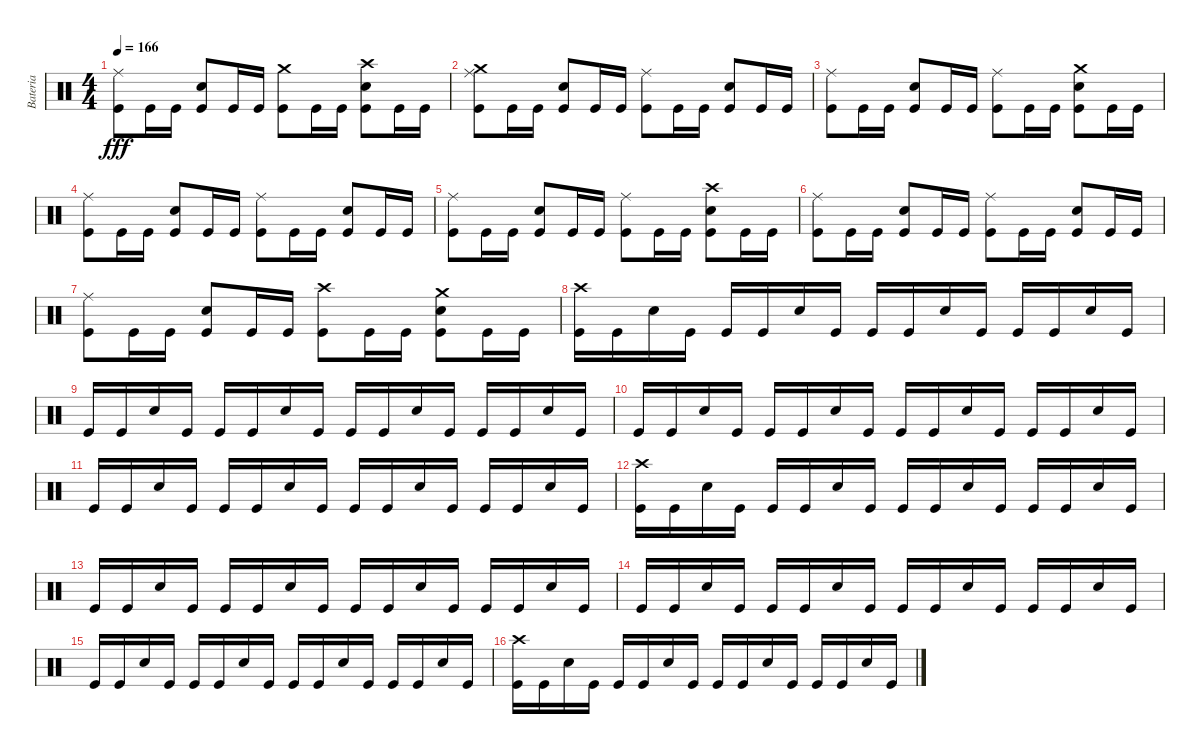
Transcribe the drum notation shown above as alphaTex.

\track ("Bateria" "Bateria") {instrument percussion}
\staff {score}
\articulation defaults
\ts (4 4)
\tempo 166
\clef neutral
\ks c
("Ride (middle)" "Kick (hit)").8{dy fff} "Kick (hit)".16 "Kick (hit)".16 ("Snare (hit) 2" "Kick (hit)").8 "Kick (hit)".16 "Kick (hit)".16 ("Kick (hit)" "Crash medium (hit)").8 "Kick (hit)".16 "Kick (hit)".16 ("Snare (hit) 2" "Kick (hit)" "Crash high (hit)").8 "Kick (hit)".16 "Kick (hit)".16 |
("Ride (middle)" "Kick (hit)" "Crash medium (hit)").8 "Kick (hit)".16 "Kick (hit)".16 ("Snare (hit) 2" "Kick (hit)").8 "Kick (hit)".16 "Kick (hit)".16 ("Ride (middle)" "Kick (hit)").8 "Kick (hit)".16 "Kick (hit)".16 ("Snare (hit) 2" "Kick (hit)").8 "Kick (hit)".16 "Kick (hit)".16 |
("Ride (middle)" "Kick (hit)").8 "Kick (hit)".16 "Kick (hit)".16 ("Snare (hit) 2" "Kick (hit)").8 "Kick (hit)".16 "Kick (hit)".16 ("Ride (middle)" "Kick (hit)").8 "Kick (hit)".16 "Kick (hit)".16 ("Snare (hit) 2" "Kick (hit)" "Crash medium (hit)").8 "Kick (hit)".16 "Kick (hit)".16 |
("Ride (middle)" "Kick (hit)").8 "Kick (hit)".16 "Kick (hit)".16 ("Snare (hit) 2" "Kick (hit)").8 "Kick (hit)".16 "Kick (hit)".16 ("Ride (middle)" "Kick (hit)").8 "Kick (hit)".16 "Kick (hit)".16 ("Snare (hit) 2" "Kick (hit)").8 "Kick (hit)".16 "Kick (hit)".16 |
("Ride (middle)" "Kick (hit)").8 "Kick (hit)".16 "Kick (hit)".16 ("Snare (hit) 2" "Kick (hit)").8 "Kick (hit)".16 "Kick (hit)".16 ("Ride (middle)" "Kick (hit)").8 "Kick (hit)".16 "Kick (hit)".16 ("Snare (hit) 2" "Kick (hit)" "Crash high (hit)").8 "Kick (hit)".16 "Kick (hit)".16 |
("Ride (middle)" "Kick (hit)").8 "Kick (hit)".16 "Kick (hit)".16 ("Snare (hit) 2" "Kick (hit)").8 "Kick (hit)".16 "Kick (hit)".16 ("Ride (middle)" "Kick (hit)").8 "Kick (hit)".16 "Kick (hit)".16 ("Snare (hit) 2" "Kick (hit)").8 "Kick (hit)".16 "Kick (hit)".16 |
("Ride (middle)" "Kick (hit)").8 "Kick (hit)".16 "Kick (hit)".16 ("Snare (hit) 2" "Kick (hit)").8 "Kick (hit)".16 "Kick (hit)".16 ("Kick (hit)" "Crash high (hit)").8 "Kick (hit)".16 "Kick (hit)".16 ("Snare (hit) 2" "Kick (hit)" "Crash medium (hit)").8 "Kick (hit)".16 "Kick (hit)".16 |
("Kick (hit)" "Crash high (hit)").16 "Kick (hit)".16 "Snare (hit) 2".16 "Kick (hit)".16 "Kick (hit)".16 "Kick (hit)".16 "Snare (hit) 2".16 "Kick (hit)".16 "Kick (hit)".16 "Kick (hit)".16 "Snare (hit) 2".16 "Kick (hit)".16 "Kick (hit)".16 "Kick (hit)".16 "Snare (hit) 2".16 "Kick (hit)".16 |
"Kick (hit)".16 "Kick (hit)".16 "Snare (hit) 2".16 "Kick (hit)".16 "Kick (hit)".16 "Kick (hit)".16 "Snare (hit) 2".16 "Kick (hit)".16 "Kick (hit)".16 "Kick (hit)".16 "Snare (hit) 2".16 "Kick (hit)".16 "Kick (hit)".16 "Kick (hit)".16 "Snare (hit) 2".16 "Kick (hit)".16 |
"Kick (hit)".16 "Kick (hit)".16 "Snare (hit) 2".16 "Kick (hit)".16 "Kick (hit)".16 "Kick (hit)".16 "Snare (hit) 2".16 "Kick (hit)".16 "Kick (hit)".16 "Kick (hit)".16 "Snare (hit) 2".16 "Kick (hit)".16 "Kick (hit)".16 "Kick (hit)".16 "Snare (hit) 2".16 "Kick (hit)".16 |
"Kick (hit)".16 "Kick (hit)".16 "Snare (hit) 2".16 "Kick (hit)".16 "Kick (hit)".16 "Kick (hit)".16 "Snare (hit) 2".16 "Kick (hit)".16 "Kick (hit)".16 "Kick (hit)".16 "Snare (hit) 2".16 "Kick (hit)".16 "Kick (hit)".16 "Kick (hit)".16 "Snare (hit) 2".16 "Kick (hit)".16 |
("Kick (hit)" "Crash high (hit)").16 "Kick (hit)".16 "Snare (hit) 2".16 "Kick (hit)".16 "Kick (hit)".16 "Kick (hit)".16 "Snare (hit) 2".16 "Kick (hit)".16 "Kick (hit)".16 "Kick (hit)".16 "Snare (hit) 2".16 "Kick (hit)".16 "Kick (hit)".16 "Kick (hit)".16 "Snare (hit) 2".16 "Kick (hit)".16 |
"Kick (hit)".16 "Kick (hit)".16 "Snare (hit) 2".16 "Kick (hit)".16 "Kick (hit)".16 "Kick (hit)".16 "Snare (hit) 2".16 "Kick (hit)".16 "Kick (hit)".16 "Kick (hit)".16 "Snare (hit) 2".16 "Kick (hit)".16 "Kick (hit)".16 "Kick (hit)".16 "Snare (hit) 2".16 "Kick (hit)".16 |
"Kick (hit)".16 "Kick (hit)".16 "Snare (hit) 2".16 "Kick (hit)".16 "Kick (hit)".16 "Kick (hit)".16 "Snare (hit) 2".16 "Kick (hit)".16 "Kick (hit)".16 "Kick (hit)".16 "Snare (hit) 2".16 "Kick (hit)".16 "Kick (hit)".16 "Kick (hit)".16 "Snare (hit) 2".16 "Kick (hit)".16 |
"Kick (hit)".16 "Kick (hit)".16 "Snare (hit) 2".16 "Kick (hit)".16 "Kick (hit)".16 "Kick (hit)".16 "Snare (hit) 2".16 "Kick (hit)".16 "Kick (hit)".16 "Kick (hit)".16 "Snare (hit) 2".16 "Kick (hit)".16 "Kick (hit)".16 "Kick (hit)".16 "Snare (hit) 2".16 "Kick (hit)".16 |
("Kick (hit)" "Crash high (hit)").16 "Kick (hit)".16 "Snare (hit) 2".16 "Kick (hit)".16 "Kick (hit)".16 "Kick (hit)".16 "Snare (hit) 2".16 "Kick (hit)".16 "Kick (hit)".16 "Kick (hit)".16 "Snare (hit) 2".16 "Kick (hit)".16 "Kick (hit)".16 "Kick (hit)".16 "Snare (hit) 2".16 "Kick (hit)".16
